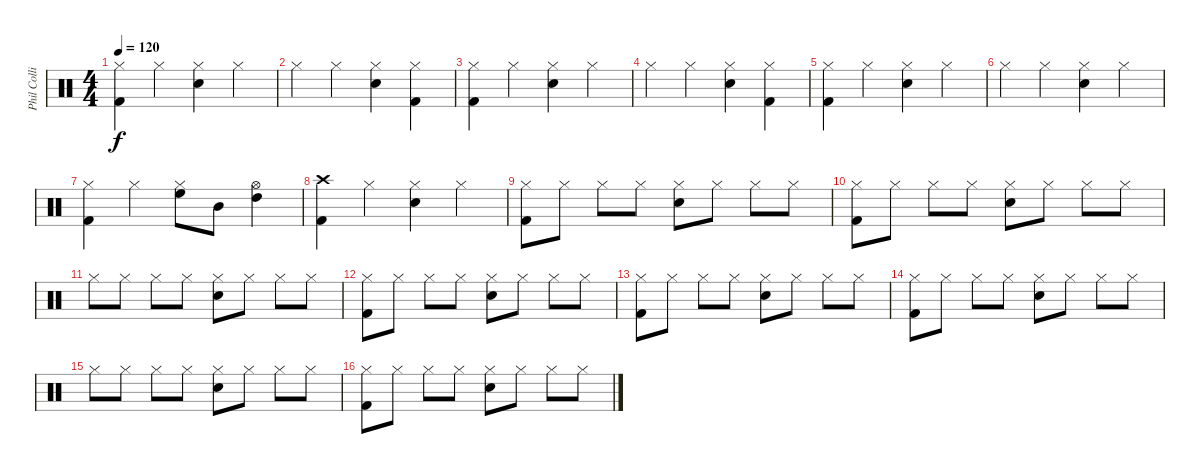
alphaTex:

\track ("Phil Collins" "Phil Colli") {instrument percussion}
\staff {score}
\articulation defaults
\ts (4 4)
\tempo 120
\clef neutral
\ks c
("Hi-Hat (closed)" "Kick (hit) 2").4{dy f} "Hi-Hat (closed)".4 ("Hi-Hat (closed)" "Snare (hit) 2").4 "Hi-Hat (closed)".4 |
"Hi-Hat (closed)".4 "Hi-Hat (closed)".4 ("Hi-Hat (closed)" "Snare (hit) 2").4 ("Hi-Hat (closed)" "Kick (hit) 2").4 |
("Hi-Hat (closed)" "Kick (hit) 2").4 "Hi-Hat (closed)".4 ("Hi-Hat (closed)" "Snare (hit) 2").4 "Hi-Hat (closed)".4 |
"Hi-Hat (closed)".4 "Hi-Hat (closed)".4 ("Hi-Hat (closed)" "Snare (hit) 2").4 ("Hi-Hat (closed)" "Kick (hit) 2").4 |
("Hi-Hat (closed)" "Kick (hit) 2").4 "Hi-Hat (closed)".4 ("Hi-Hat (closed)" "Snare (hit) 2").4 "Hi-Hat (closed)".4 |
"Hi-Hat (closed)".4 "Hi-Hat (closed)".4 ("Hi-Hat (closed)" "Snare (hit) 2").4 "Hi-Hat (closed)".4 |
("Hi-Hat (closed)" "Kick (hit) 2").4 "Hi-Hat (closed)".4 ("Hi-Hat (closed)" "High Floor Tom (hit)").8 "Mid Tom (hit)".8 ("Hi-Hat (open)" "High Tom (hit)").4 |
("Crash high (hit)" "Kick (hit) 2").4 "Hi-Hat (closed)".4 ("Hi-Hat (closed)" "Snare (hit) 2").4 "Hi-Hat (closed)".4 |
("Hi-Hat (closed)" "Kick (hit) 2").8 "Hi-Hat (closed)".8 "Hi-Hat (closed)".8 "Hi-Hat (closed)".8 ("Hi-Hat (closed)" "Snare (hit) 2").8 "Hi-Hat (closed)".8 "Hi-Hat (closed)".8 "Hi-Hat (closed)".8 |
("Hi-Hat (closed)" "Kick (hit) 2").8 "Hi-Hat (closed)".8 "Hi-Hat (closed)".8 "Hi-Hat (closed)".8 ("Hi-Hat (closed)" "Snare (hit) 2").8 "Hi-Hat (closed)".8 "Hi-Hat (closed)".8 "Hi-Hat (closed)".8 |
"Hi-Hat (closed)".8 "Hi-Hat (closed)".8 "Hi-Hat (closed)".8 "Hi-Hat (closed)".8 ("Hi-Hat (closed)" "Snare (hit) 2").8 "Hi-Hat (closed)".8 "Hi-Hat (closed)".8 "Hi-Hat (closed)".8 |
("Hi-Hat (closed)" "Kick (hit) 2").8 "Hi-Hat (closed)".8 "Hi-Hat (closed)".8 "Hi-Hat (closed)".8 ("Hi-Hat (closed)" "Snare (hit) 2").8 "Hi-Hat (closed)".8 "Hi-Hat (closed)".8 "Hi-Hat (closed)".8 |
("Hi-Hat (closed)" "Kick (hit) 2").8 "Hi-Hat (closed)".8 "Hi-Hat (closed)".8 "Hi-Hat (closed)".8 ("Hi-Hat (closed)" "Snare (hit) 2").8 "Hi-Hat (closed)".8 "Hi-Hat (closed)".8 "Hi-Hat (closed)".8 |
("Hi-Hat (closed)" "Kick (hit) 2").8 "Hi-Hat (closed)".8 "Hi-Hat (closed)".8 "Hi-Hat (closed)".8 ("Hi-Hat (closed)" "Snare (hit) 2").8 "Hi-Hat (closed)".8 "Hi-Hat (closed)".8 "Hi-Hat (closed)".8 |
"Hi-Hat (closed)".8 "Hi-Hat (closed)".8 "Hi-Hat (closed)".8 "Hi-Hat (closed)".8 ("Hi-Hat (closed)" "Snare (hit) 2").8 "Hi-Hat (closed)".8 "Hi-Hat (closed)".8 "Hi-Hat (closed)".8 |
("Hi-Hat (closed)" "Kick (hit) 2").8 "Hi-Hat (closed)".8 "Hi-Hat (closed)".8 "Hi-Hat (closed)".8 ("Hi-Hat (closed)" "Snare (hit) 2").8 "Hi-Hat (closed)".8 "Hi-Hat (closed)".8 "Hi-Hat (closed)".8
